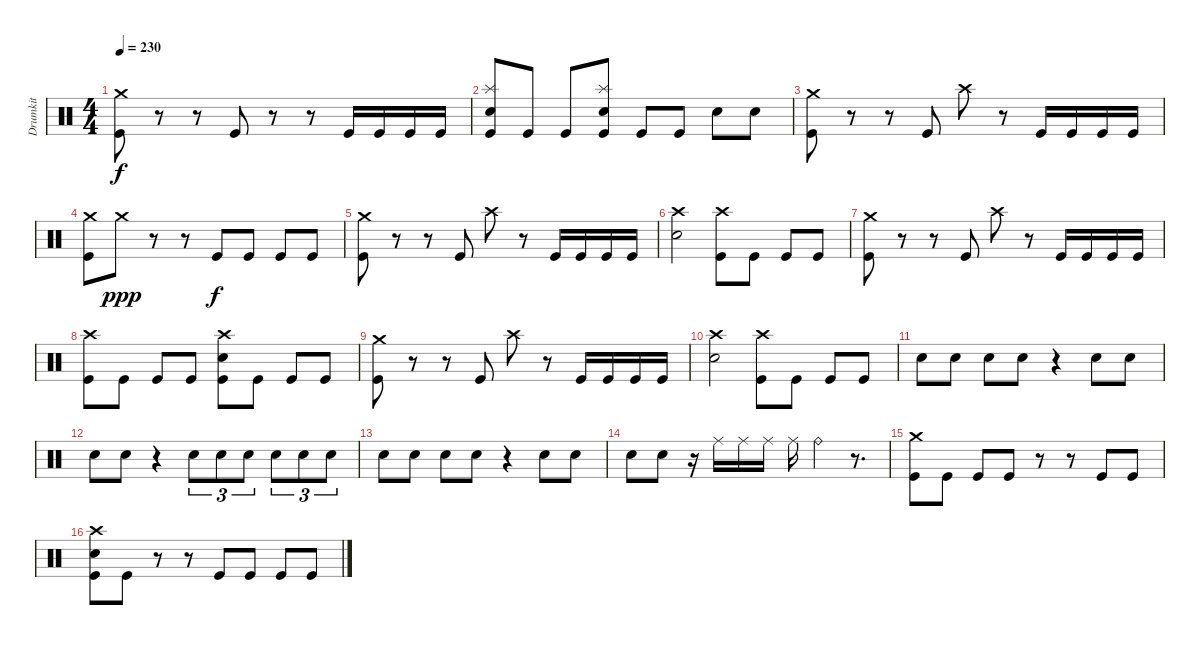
\track ("Drumkit" "Drumkit") {instrument percussion}
\staff {score}
\articulation defaults
\ts (4 4)
\tempo 230
\clef neutral
\ks c
("Crash medium (hit)" "Kick (hit)").8{dy f} r.8 r.8 "Kick (hit)".8 r.8 r.8 "Kick (hit)".16 "Kick (hit)".16 "Kick (hit)".16 "Kick (hit)".16 |
("Splash (hit)" "Snare (hit) 2" "Kick (hit)").8 "Kick (hit)".8 "Kick (hit)".8 ("Splash (hit)" "Snare (hit) 2" "Kick (hit)").8 "Kick (hit)".8 "Kick (hit)".8 "Snare (hit) 2".8 "Snare (hit) 2".8 |
("Crash medium (hit)" "Kick (hit)").8 r.8 r.8 "Kick (hit)".8 "Crash high (hit)".8 r.8 "Kick (hit)".16 "Kick (hit)".16 "Kick (hit)".16 "Kick (hit)".16 |
("Crash medium (hit)" "Kick (hit)").8 "Crash medium (hit)".8{dy ppp} r.8 r.8 "Kick (hit)".8{dy f} "Kick (hit)".8 "Kick (hit)".8 "Kick (hit)".8 |
("Crash medium (hit)" "Kick (hit)").8 r.8 r.8 "Kick (hit)".8 "Crash high (hit)".8 r.8 "Kick (hit)".16 "Kick (hit)".16 "Kick (hit)".16 "Kick (hit)".16 |
("Crash high (hit)" "Snare (hit) 2").2 ("Crash high (hit)" "Kick (hit)").8 "Kick (hit)".8 "Kick (hit)".8 "Kick (hit)".8 |
("Crash medium (hit)" "Kick (hit)").8 r.8 r.8 "Kick (hit)".8 "Crash high (hit)".8 r.8 "Kick (hit)".16 "Kick (hit)".16 "Kick (hit)".16 "Kick (hit)".16 |
("Crash high (hit)" "Kick (hit)").8 "Kick (hit)".8 "Kick (hit)".8 "Kick (hit)".8 ("Crash high (hit)" "Snare (hit) 2" "Kick (hit)").8 "Kick (hit)".8 "Kick (hit)".8 "Kick (hit)".8 |
("Crash medium (hit)" "Kick (hit)").8 r.8 r.8 "Kick (hit)".8 "Crash high (hit)".8 r.8 "Kick (hit)".16 "Kick (hit)".16 "Kick (hit)".16 "Kick (hit)".16 |
("Crash high (hit)" "Snare (hit) 2").2 ("Crash high (hit)" "Kick (hit)").8 "Kick (hit)".8 "Kick (hit)".8 "Kick (hit)".8 |
"Snare (hit) 2".8 "Snare (hit) 2".8 "Snare (hit) 2".8 "Snare (hit) 2".8 r.4 "Snare (hit) 2".8 "Snare (hit) 2".8 |
"Snare (hit) 2".8 "Snare (hit) 2".8 r.4 "Snare (hit) 2".8{tu (3 2)} "Snare (hit) 2".8{tu (3 2)} "Snare (hit) 2".8{tu (3 2)} "Snare (hit) 2".8{tu (3 2)} "Snare (hit) 2".8{tu (3 2)} "Snare (hit) 2".8{tu (3 2)} |
"Snare (hit) 2".8 "Snare (hit) 2".8 "Snare (hit) 2".8 "Snare (hit) 2".8 r.4 "Snare (hit) 2".8 "Snare (hit) 2".8 |
"Snare (hit) 2".8 "Snare (hit) 2".8 r.16 "Ride (middle)".16 "Ride (middle)".16 "Ride (middle)".16 "Ride (middle)".16 "Ride (bell)".4 r.8{d} |
("Crash medium (hit)" "Kick (hit)").8 "Kick (hit)".8 "Kick (hit)".8 "Kick (hit)".8 r.8 r.8 "Kick (hit)".8 "Kick (hit)".8 |
("Crash high (hit)" "Snare (hit) 2" "Kick (hit)").8 "Kick (hit)".8 r.8 r.8 "Kick (hit)".8 "Kick (hit)".8 "Kick (hit)".8 "Kick (hit)".8
